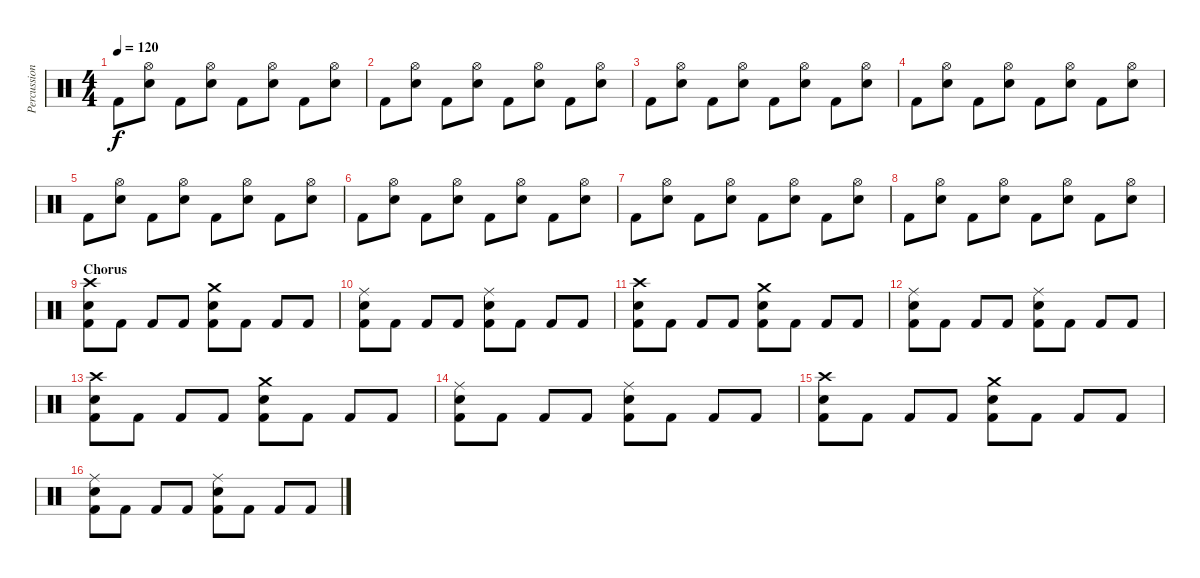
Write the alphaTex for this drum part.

\track ("Percussioni" "Percussion") {instrument percussion}
\staff {score}
\articulation defaults
\ts (4 4)
\tempo 120
\clef neutral
\ks c "Kick (hit) 2".8{dy f}
("Hi-Hat (open)" "Electric Snare (hit)").8 "Kick (hit) 2".8 ("Hi-Hat (open)" "Electric Snare (hit)").8 "Kick (hit) 2".8 ("Hi-Hat (open)" "Electric Snare (hit)").8 "Kick (hit) 2".8 ("Hi-Hat (open)" "Electric Snare (hit)").8 |
"Kick (hit) 2".8 ("Hi-Hat (open)" "Electric Snare (hit)").8 "Kick (hit) 2".8 ("Hi-Hat (open)" "Electric Snare (hit)").8 "Kick (hit) 2".8 ("Hi-Hat (open)" "Electric Snare (hit)").8 "Kick (hit) 2".8 ("Hi-Hat (open)" "Electric Snare (hit)").8 |
"Kick (hit) 2".8 ("Hi-Hat (open)" "Electric Snare (hit)").8 "Kick (hit) 2".8 ("Hi-Hat (open)" "Electric Snare (hit)").8 "Kick (hit) 2".8 ("Hi-Hat (open)" "Electric Snare (hit)").8 "Kick (hit) 2".8 ("Hi-Hat (open)" "Electric Snare (hit)").8 |
"Kick (hit) 2".8 ("Hi-Hat (open)" "Electric Snare (hit)").8 "Kick (hit) 2".8 ("Hi-Hat (open)" "Electric Snare (hit)").8 "Kick (hit) 2".8 ("Hi-Hat (open)" "Electric Snare (hit)").8 "Kick (hit) 2".8 ("Hi-Hat (open)" "Electric Snare (hit)").8 |
"Kick (hit) 2".8 ("Hi-Hat (open)" "Electric Snare (hit)").8 "Kick (hit) 2".8 ("Hi-Hat (open)" "Electric Snare (hit)").8 "Kick (hit) 2".8 ("Hi-Hat (open)" "Electric Snare (hit)").8 "Kick (hit) 2".8 ("Hi-Hat (open)" "Electric Snare (hit)").8 |
"Kick (hit) 2".8 ("Hi-Hat (open)" "Electric Snare (hit)").8 "Kick (hit) 2".8 ("Hi-Hat (open)" "Electric Snare (hit)").8 "Kick (hit) 2".8 ("Hi-Hat (open)" "Electric Snare (hit)").8 "Kick (hit) 2".8 ("Hi-Hat (open)" "Electric Snare (hit)").8 |
"Kick (hit) 2".8 ("Hi-Hat (open)" "Electric Snare (hit)").8 "Kick (hit) 2".8 ("Hi-Hat (open)" "Electric Snare (hit)").8 "Kick (hit) 2".8 ("Hi-Hat (open)" "Electric Snare (hit)").8 "Kick (hit) 2".8 ("Hi-Hat (open)" "Electric Snare (hit)").8 |
"Kick (hit) 2".8 ("Hi-Hat (open)" "Electric Snare (hit)").8 "Kick (hit) 2".8 ("Hi-Hat (open)" "Electric Snare (hit)").8 "Kick (hit) 2".8 ("Hi-Hat (open)" "Electric Snare (hit)").8 "Kick (hit) 2".8 ("Hi-Hat (open)" "Electric Snare (hit)").8 |
\section ("" "Chorus")
("Crash high (hit)" "Electric Snare (hit)" "Kick (hit) 2").8 "Kick (hit) 2".8 "Kick (hit) 2".8 "Kick (hit) 2".8 ("Crash medium (hit)" "Electric Snare (hit)" "Kick (hit) 2").8 "Kick (hit) 2".8 "Kick (hit) 2".8 "Kick (hit) 2".8 |
("Ride (middle)" "Electric Snare (hit)" "Kick (hit) 2").8 "Kick (hit) 2".8 "Kick (hit) 2".8 "Kick (hit) 2".8 ("Ride (middle)" "Electric Snare (hit)" "Kick (hit) 2").8 "Kick (hit) 2".8 "Kick (hit) 2".8 "Kick (hit) 2".8 |
("Crash high (hit)" "Electric Snare (hit)" "Kick (hit) 2").8 "Kick (hit) 2".8 "Kick (hit) 2".8 "Kick (hit) 2".8 ("Crash medium (hit)" "Electric Snare (hit)" "Kick (hit) 2").8 "Kick (hit) 2".8 "Kick (hit) 2".8 "Kick (hit) 2".8 |
("Ride (middle)" "Electric Snare (hit)" "Kick (hit) 2").8 "Kick (hit) 2".8 "Kick (hit) 2".8 "Kick (hit) 2".8 ("Ride (middle)" "Electric Snare (hit)" "Kick (hit) 2").8 "Kick (hit) 2".8 "Kick (hit) 2".8 "Kick (hit) 2".8 |
("Crash high (hit)" "Electric Snare (hit)" "Kick (hit) 2").8 "Kick (hit) 2".8 "Kick (hit) 2".8 "Kick (hit) 2".8 ("Crash medium (hit)" "Electric Snare (hit)" "Kick (hit) 2").8 "Kick (hit) 2".8 "Kick (hit) 2".8 "Kick (hit) 2".8 |
("Ride (middle)" "Electric Snare (hit)" "Kick (hit) 2").8 "Kick (hit) 2".8 "Kick (hit) 2".8 "Kick (hit) 2".8 ("Ride (middle)" "Electric Snare (hit)" "Kick (hit) 2").8 "Kick (hit) 2".8 "Kick (hit) 2".8 "Kick (hit) 2".8 |
("Crash high (hit)" "Electric Snare (hit)" "Kick (hit) 2").8 "Kick (hit) 2".8 "Kick (hit) 2".8 "Kick (hit) 2".8 ("Crash medium (hit)" "Electric Snare (hit)" "Kick (hit) 2").8 "Kick (hit) 2".8 "Kick (hit) 2".8 "Kick (hit) 2".8 |
("Ride (middle)" "Electric Snare (hit)" "Kick (hit) 2").8 "Kick (hit) 2".8 "Kick (hit) 2".8 "Kick (hit) 2".8 ("Ride (middle)" "Electric Snare (hit)" "Kick (hit) 2").8 "Kick (hit) 2".8 "Kick (hit) 2".8 "Kick (hit) 2".8
